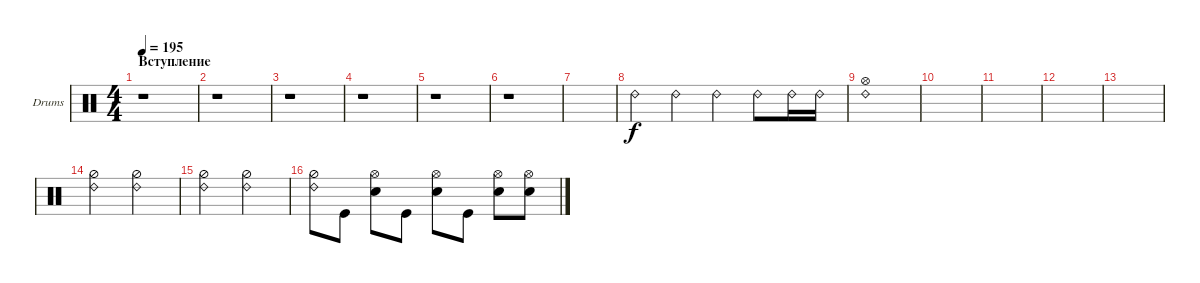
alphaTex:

\defaultSystemsLayout 4
\bracketExtendMode groupsimilarinstruments
\firstSystemTrackNameOrientation horizontal
\otherSystemsTrackNameOrientation horizontal
\track ("Drumkit" "Drums") {instrument percussion}
\staff {score}
\articulation defaults
\ts (4 4)
\section ("" "Вступление")
\tempo 195
\clef neutral
\ks c
r.1{dy f} |
r.1 |
r.1 |
r.1 |
r.1 |
r.1 |
|
"Ride (bell) 2".4 "Ride (bell) 2".4 "Ride (bell) 2".4 "Ride (bell) 2".8 "Ride (bell) 2".16 "Ride (bell) 2".16 |
("Hi-Hat (open)" "Ride (bell) 2").1 |
|
|
|
|
("Hi-Hat (half)" "Ride (bell) 2").2 ("Hi-Hat (half)" "Ride (bell) 2").2 |
("Hi-Hat (half)" "Ride (bell) 2").2 ("Hi-Hat (half)" "Ride (bell) 2").2 |
("Ride (bell) 2" "Hi-Hat (half)").8 "Kick (hit)".8 ("Snare (hit) 2" "Hi-Hat (open)").8 "Kick (hit)".8 ("Snare (hit) 2" "Hi-Hat (open)").8 "Kick (hit)".8 ("Snare (hit) 2" "Hi-Hat (open)").8 ("Snare (hit) 2" "Hi-Hat (open)").8
